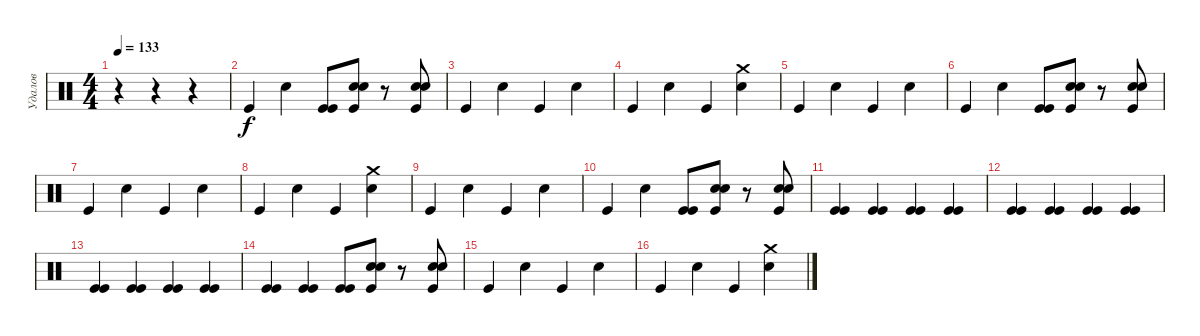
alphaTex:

\track ("Удалов" "Удалов") {instrument percussion}
\staff {score}
\articulation defaults
\ts (4 4)
\tempo 133
\clef neutral
\ks c
r.4{dy f} r.4 r.4 |
"Kick (hit)".4 "Electric Snare (hit)".4 ("Kick (hit)" "Kick (hit)").8 ("Electric Snare (hit)" "Electric Snare (hit)" "Kick (hit)").8 r.8 ("Electric Snare (hit)" "Electric Snare (hit)" "Kick (hit)").8 |
"Kick (hit)".4 "Electric Snare (hit)".4 "Kick (hit)".4 "Electric Snare (hit)".4 |
"Kick (hit)".4 "Electric Snare (hit)".4 "Kick (hit)".4 ("Crash medium (hit)" "Electric Snare (hit)").4 |
"Kick (hit)".4 "Electric Snare (hit)".4 "Kick (hit)".4 "Electric Snare (hit)".4 |
"Kick (hit)".4 "Electric Snare (hit)".4 ("Kick (hit)" "Kick (hit)").8 ("Electric Snare (hit)" "Electric Snare (hit)" "Kick (hit)").8 r.8 ("Electric Snare (hit)" "Electric Snare (hit)" "Kick (hit)").8 |
"Kick (hit)".4 "Electric Snare (hit)".4 "Kick (hit)".4 "Electric Snare (hit)".4 |
"Kick (hit)".4 "Electric Snare (hit)".4 "Kick (hit)".4 ("Crash medium (hit)" "Electric Snare (hit)").4 |
"Kick (hit)".4 "Electric Snare (hit)".4 "Kick (hit)".4 "Electric Snare (hit)".4 |
"Kick (hit)".4 "Electric Snare (hit)".4 ("Kick (hit)" "Kick (hit)").8 ("Electric Snare (hit)" "Electric Snare (hit)" "Kick (hit)").8 r.8 ("Electric Snare (hit)" "Electric Snare (hit)" "Kick (hit)").8 |
("Kick (hit)" "Kick (hit)").4 ("Kick (hit)" "Kick (hit)").4 ("Kick (hit)" "Kick (hit)").4 ("Kick (hit)" "Kick (hit)").4 |
("Kick (hit)" "Kick (hit)").4 ("Kick (hit)" "Kick (hit)").4 ("Kick (hit)" "Kick (hit)").4 ("Kick (hit)" "Kick (hit)").4 |
("Kick (hit)" "Kick (hit)").4 ("Kick (hit)" "Kick (hit)").4 ("Kick (hit)" "Kick (hit)").4 ("Kick (hit)" "Kick (hit)").4 |
("Kick (hit)" "Kick (hit)").4 ("Kick (hit)" "Kick (hit)").4 ("Kick (hit)" "Kick (hit)").8 ("Electric Snare (hit)" "Electric Snare (hit)" "Kick (hit)").8 r.8 ("Electric Snare (hit)" "Electric Snare (hit)" "Kick (hit)").8 |
"Kick (hit)".4 "Electric Snare (hit)".4 "Kick (hit)".4 "Electric Snare (hit)".4 |
"Kick (hit)".4 "Electric Snare (hit)".4 "Kick (hit)".4 ("Crash medium (hit)" "Electric Snare (hit)").4
